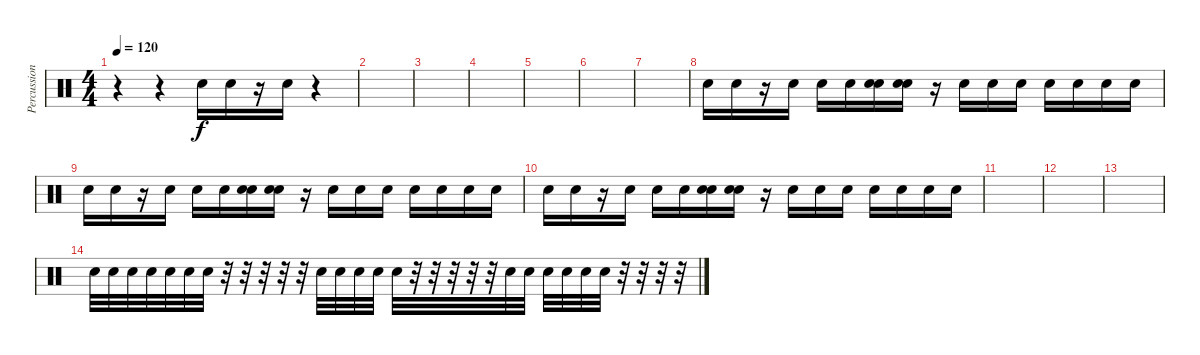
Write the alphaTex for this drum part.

\track ("Percussion" "Percussion") {instrument percussion}
\staff {score}
\articulation defaults
\ts (4 4)
\tempo 120
\clef neutral
\ks c
r.4{dy f} r.4 "Electric Snare (hit)".16 "Electric Snare (hit)".16 r.16 "Electric Snare (hit)".16 r.4 |
|
|
|
|
|
|
"Electric Snare (hit)".16 "Electric Snare (hit)".16 r.16 "Electric Snare (hit)".16 "Electric Snare (hit)".16 "Electric Snare (hit)".16 ("Electric Snare (hit)" "Electric Snare (hit)").16 ("Electric Snare (hit)" "Electric Snare (hit)").16 r.16 "Electric Snare (hit)".16 "Electric Snare (hit)".16 "Electric Snare (hit)".16 "Electric Snare (hit)".16 "Electric Snare (hit)".16 "Electric Snare (hit)".16 "Electric Snare (hit)".16 |
"Electric Snare (hit)".16 "Electric Snare (hit)".16 r.16 "Electric Snare (hit)".16 "Electric Snare (hit)".16 "Electric Snare (hit)".16 ("Electric Snare (hit)" "Electric Snare (hit)").16 ("Electric Snare (hit)" "Electric Snare (hit)").16 r.16 "Electric Snare (hit)".16 "Electric Snare (hit)".16 "Electric Snare (hit)".16 "Electric Snare (hit)".16 "Electric Snare (hit)".16 "Electric Snare (hit)".16 "Electric Snare (hit)".16 |
"Electric Snare (hit)".16 "Electric Snare (hit)".16 r.16 "Electric Snare (hit)".16 "Electric Snare (hit)".16 "Electric Snare (hit)".16 ("Electric Snare (hit)" "Electric Snare (hit)").16 ("Electric Snare (hit)" "Electric Snare (hit)").16 r.16 "Electric Snare (hit)".16 "Electric Snare (hit)".16 "Electric Snare (hit)".16 "Electric Snare (hit)".16 "Electric Snare (hit)".16 "Electric Snare (hit)".16 "Electric Snare (hit)".16 |
|
|
|
"Electric Snare (hit)".32 "Electric Snare (hit)".32 "Electric Snare (hit)".32 "Electric Snare (hit)".32 "Electric Snare (hit)".32 "Electric Snare (hit)".32 "Electric Snare (hit)".32 r.32 r.32 r.32 r.32 r.32 "Electric Snare (hit)".32 "Electric Snare (hit)".32 "Electric Snare (hit)".32 "Electric Snare (hit)".32 "Electric Snare (hit)".32 r.32 r.32 r.32 r.32 r.32 "Electric Snare (hit)".32 "Electric Snare (hit)".32 "Electric Snare (hit)".32 "Electric Snare (hit)".32 "Electric Snare (hit)".32 "Electric Snare (hit)".32 r.32 r.32 r.32 r.32
